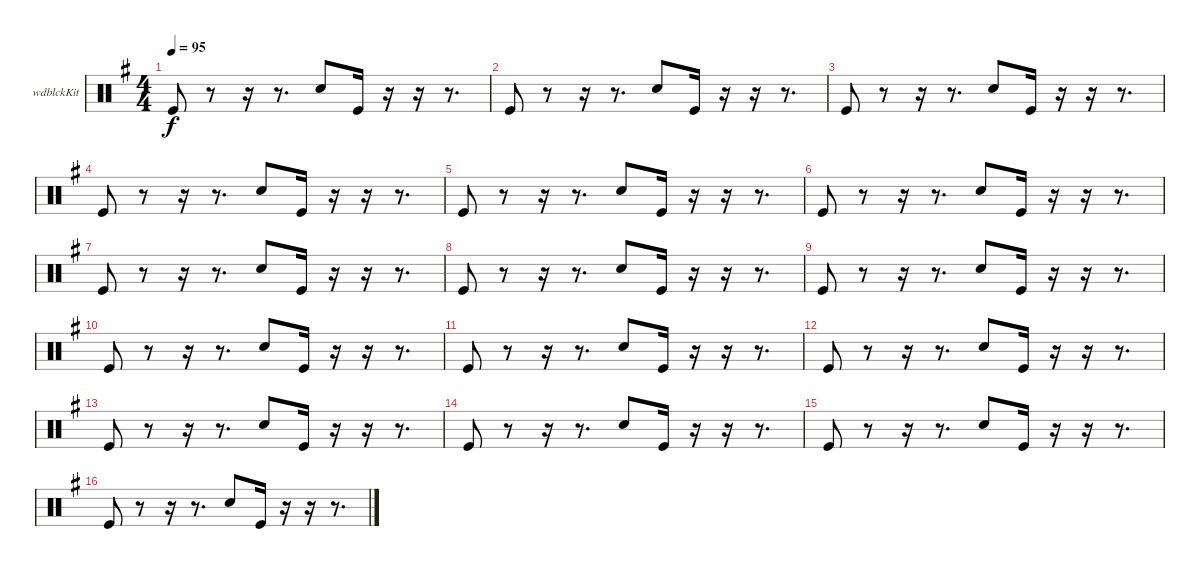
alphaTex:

\bracketExtendMode groupsimilarinstruments
\firstSystemTrackNameOrientation horizontal
\otherSystemsTrackNameOrientation horizontal
\track ("Woodblock" "wdblckKit") {instrument percussion}
\staff {score}
\articulation defaults
\ts (4 4)
\tempo 95
\clef neutral
\ks g "Kick (hit)".8{dy f}
r.8 r.16 r.8{d} "Snare (hit) 2".8 "Kick (hit)".16 r.16 r.16 r.8{d} |
"Kick (hit)".8 r.8 r.16 r.8{d} "Snare (hit) 2".8 "Kick (hit)".16 r.16 r.16 r.8{d} |
"Kick (hit)".8 r.8 r.16 r.8{d} "Snare (hit) 2".8 "Kick (hit)".16 r.16 r.16 r.8{d} |
"Kick (hit)".8 r.8 r.16 r.8{d} "Snare (hit) 2".8 "Kick (hit)".16 r.16 r.16 r.8{d} |
"Kick (hit)".8 r.8 r.16 r.8{d} "Snare (hit) 2".8 "Kick (hit)".16 r.16 r.16 r.8{d} |
"Kick (hit)".8 r.8 r.16 r.8{d} "Snare (hit) 2".8 "Kick (hit)".16 r.16 r.16 r.8{d} |
"Kick (hit)".8 r.8 r.16 r.8{d} "Snare (hit) 2".8 "Kick (hit)".16 r.16 r.16 r.8{d} |
"Kick (hit)".8 r.8 r.16 r.8{d} "Snare (hit) 2".8 "Kick (hit)".16 r.16 r.16 r.8{d} |
"Kick (hit)".8 r.8 r.16 r.8{d} "Snare (hit) 2".8 "Kick (hit)".16 r.16 r.16 r.8{d} |
"Kick (hit)".8 r.8 r.16 r.8{d} "Snare (hit) 2".8 "Kick (hit)".16 r.16 r.16 r.8{d} |
"Kick (hit)".8 r.8 r.16 r.8{d} "Snare (hit) 2".8 "Kick (hit)".16 r.16 r.16 r.8{d} |
"Kick (hit)".8 r.8 r.16 r.8{d} "Snare (hit) 2".8 "Kick (hit)".16 r.16 r.16 r.8{d} |
"Kick (hit)".8 r.8 r.16 r.8{d} "Snare (hit) 2".8 "Kick (hit)".16 r.16 r.16 r.8{d} |
"Kick (hit)".8 r.8 r.16 r.8{d} "Snare (hit) 2".8 "Kick (hit)".16 r.16 r.16 r.8{d} |
"Kick (hit)".8 r.8 r.16 r.8{d} "Snare (hit) 2".8 "Kick (hit)".16 r.16 r.16 r.8{d} |
"Kick (hit)".8 r.8 r.16 r.8{d} "Snare (hit) 2".8 "Kick (hit)".16 r.16 r.16 r.8{d}
